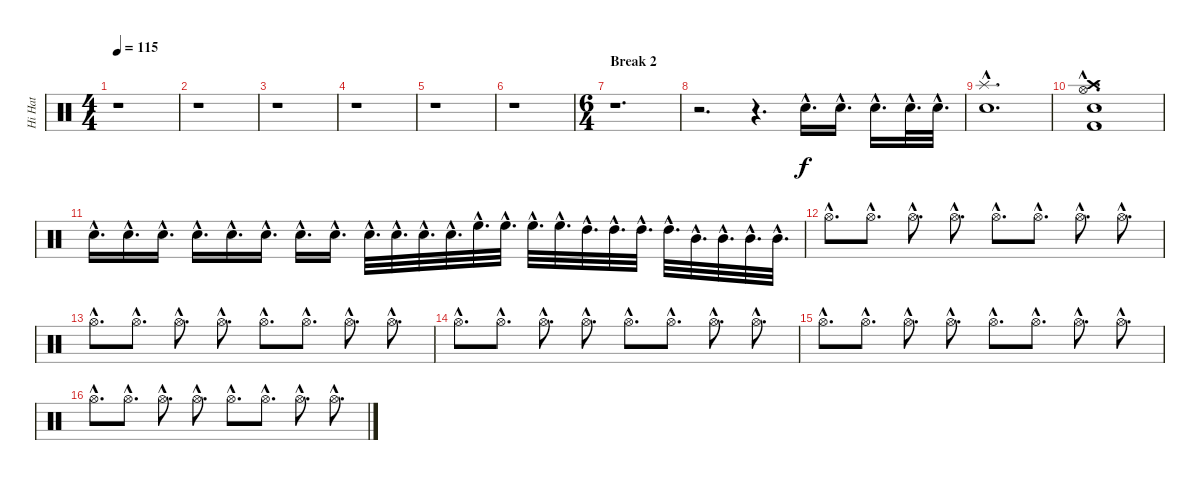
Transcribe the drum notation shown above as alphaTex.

\track ("Hi Hat" "Hi Hat") {instrument percussion}
\staff {score}
\articulation defaults
\ts (4 4)
\tempo 115
\clef neutral
\ks c
r.1{dy f} |
r.1 |
r.1 |
r.1 |
r.1 |
r.1 |
\ts (6 4)
\section ("" "Break 2")
r.1{d} |
r.2{d} r.4{d} "Electric Snare (hit)"{hac}.16{d} "Electric Snare (hit)"{hac}.16{d} "Electric Snare (hit)"{hac}.16{d} "Electric Snare (hit)"{hac}.32{d} "Electric Snare (hit)"{hac}.32{d} |
("Electric Snare (hit)"{hac} "Splash (hit)"{hac}).1{d} |
("Kick (hit) 2"{hac} "Electric Snare (hit)"{hac} "Hi-Hat (open)"{hac} "Crash high (hit)"{hac}).1{d} |
"Electric Snare (hit)"{hac}.16{d} "Electric Snare (hit)"{hac}.16{d} "Electric Snare (hit)"{hac}.16{d} "Electric Snare (hit)"{hac}.16{d} "Electric Snare (hit)"{hac}.16{d} "Electric Snare (hit)"{hac}.16{d} "Electric Snare (hit)"{hac}.16{d} "Electric Snare (hit)"{hac}.16{d} "Electric Snare (hit)"{hac}.32{d} "Electric Snare (hit)"{hac}.32{d} "Electric Snare (hit)"{hac}.32{d} "Electric Snare (hit)"{hac}.32{d} "High Floor Tom (hit)"{hac}.32{d} "High Floor Tom (hit)"{hac}.32{d} "High Floor Tom (hit)"{hac}.32{d} "High Floor Tom (hit)"{hac}.32{d} "High Tom (hit)"{hac}.32{d} "High Tom (hit)"{hac}.32{d} "High Tom (hit)"{hac}.32{d} "High Tom (hit)"{hac}.32{d} "Mid Tom (hit)"{hac}.32{d} "Mid Tom (hit)"{hac}.32{d} "Mid Tom (hit)"{hac}.32{d} "Mid Tom (hit)"{hac}.32{d} |
"Hi-Hat (open)"{hac}.8{d} "Hi-Hat (open)"{hac}.8{d} "Hi-Hat (open)"{hac}.8{d} "Hi-Hat (open)"{hac}.8{d} "Hi-Hat (open)"{hac}.8{d} "Hi-Hat (open)"{hac}.8{d} "Hi-Hat (open)"{hac}.8{d} "Hi-Hat (open)"{hac}.8{d} |
"Hi-Hat (open)"{hac}.8{d} "Hi-Hat (open)"{hac}.8{d} "Hi-Hat (open)"{hac}.8{d} "Hi-Hat (open)"{hac}.8{d} "Hi-Hat (open)"{hac}.8{d} "Hi-Hat (open)"{hac}.8{d} "Hi-Hat (open)"{hac}.8{d} "Hi-Hat (open)"{hac}.8{d} |
"Hi-Hat (open)"{hac}.8{d} "Hi-Hat (open)"{hac}.8{d} "Hi-Hat (open)"{hac}.8{d} "Hi-Hat (open)"{hac}.8{d} "Hi-Hat (open)"{hac}.8{d} "Hi-Hat (open)"{hac}.8{d} "Hi-Hat (open)"{hac}.8{d} "Hi-Hat (open)"{hac}.8{d} |
"Hi-Hat (open)"{hac}.8{d} "Hi-Hat (open)"{hac}.8{d} "Hi-Hat (open)"{hac}.8{d} "Hi-Hat (open)"{hac}.8{d} "Hi-Hat (open)"{hac}.8{d} "Hi-Hat (open)"{hac}.8{d} "Hi-Hat (open)"{hac}.8{d} "Hi-Hat (open)"{hac}.8{d} |
"Hi-Hat (open)"{hac}.8{d} "Hi-Hat (open)"{hac}.8{d} "Hi-Hat (open)"{hac}.8{d} "Hi-Hat (open)"{hac}.8{d} "Hi-Hat (open)"{hac}.8{d} "Hi-Hat (open)"{hac}.8{d} "Hi-Hat (open)"{hac}.8{d} "Hi-Hat (open)"{hac}.8{d}
